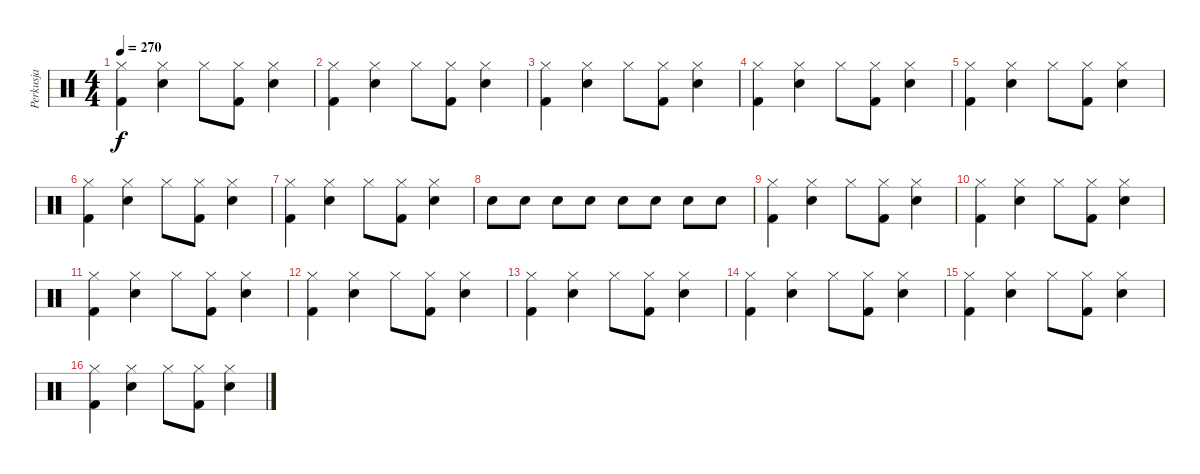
\track ("Perkusja" "Perkusja") {instrument percussion}
\staff {score}
\articulation defaults
\ts (4 4)
\tempo 270
\clef neutral
\ks c
("Hi-Hat (closed)" "Kick (hit) 2").4{dy f} ("Hi-Hat (closed)" "Electric Snare (hit)").4 "Hi-Hat (closed)".8 ("Hi-Hat (closed)" "Kick (hit) 2").8 ("Hi-Hat (closed)" "Electric Snare (hit)").4 |
("Hi-Hat (closed)" "Kick (hit) 2").4 ("Hi-Hat (closed)" "Electric Snare (hit)").4 "Hi-Hat (closed)".8 ("Hi-Hat (closed)" "Kick (hit) 2").8 ("Hi-Hat (closed)" "Electric Snare (hit)").4 |
("Hi-Hat (closed)" "Kick (hit) 2").4 ("Hi-Hat (closed)" "Electric Snare (hit)").4 "Hi-Hat (closed)".8 ("Hi-Hat (closed)" "Kick (hit) 2").8 ("Hi-Hat (closed)" "Electric Snare (hit)").4 |
("Hi-Hat (closed)" "Kick (hit) 2").4 ("Hi-Hat (closed)" "Electric Snare (hit)").4 "Hi-Hat (closed)".8 ("Hi-Hat (closed)" "Kick (hit) 2").8 ("Hi-Hat (closed)" "Electric Snare (hit)").4 |
("Hi-Hat (closed)" "Kick (hit) 2").4 ("Hi-Hat (closed)" "Electric Snare (hit)").4 "Hi-Hat (closed)".8 ("Hi-Hat (closed)" "Kick (hit) 2").8 ("Hi-Hat (closed)" "Electric Snare (hit)").4 |
("Hi-Hat (closed)" "Kick (hit) 2").4 ("Hi-Hat (closed)" "Electric Snare (hit)").4 "Hi-Hat (closed)".8 ("Hi-Hat (closed)" "Kick (hit) 2").8 ("Hi-Hat (closed)" "Electric Snare (hit)").4 |
("Hi-Hat (closed)" "Kick (hit) 2").4 ("Hi-Hat (closed)" "Electric Snare (hit)").4 "Hi-Hat (closed)".8 ("Hi-Hat (closed)" "Kick (hit) 2").8 ("Hi-Hat (closed)" "Electric Snare (hit)").4 |
"Electric Snare (hit)".8 "Electric Snare (hit)".8 "Electric Snare (hit)".8 "Electric Snare (hit)".8 "Electric Snare (hit)".8 "Electric Snare (hit)".8 "Electric Snare (hit)".8 "Electric Snare (hit)".8 |
("Hi-Hat (closed)" "Kick (hit) 2").4 ("Hi-Hat (closed)" "Electric Snare (hit)").4 "Hi-Hat (closed)".8 ("Hi-Hat (closed)" "Kick (hit) 2").8 ("Hi-Hat (closed)" "Electric Snare (hit)").4 |
("Hi-Hat (closed)" "Kick (hit) 2").4 ("Hi-Hat (closed)" "Electric Snare (hit)").4 "Hi-Hat (closed)".8 ("Hi-Hat (closed)" "Kick (hit) 2").8 ("Hi-Hat (closed)" "Electric Snare (hit)").4 |
("Hi-Hat (closed)" "Kick (hit) 2").4 ("Hi-Hat (closed)" "Electric Snare (hit)").4 "Hi-Hat (closed)".8 ("Hi-Hat (closed)" "Kick (hit) 2").8 ("Hi-Hat (closed)" "Electric Snare (hit)").4 |
("Hi-Hat (closed)" "Kick (hit) 2").4 ("Hi-Hat (closed)" "Electric Snare (hit)").4 "Hi-Hat (closed)".8 ("Hi-Hat (closed)" "Kick (hit) 2").8 ("Hi-Hat (closed)" "Electric Snare (hit)").4 |
("Hi-Hat (closed)" "Kick (hit) 2").4 ("Hi-Hat (closed)" "Electric Snare (hit)").4 "Hi-Hat (closed)".8 ("Hi-Hat (closed)" "Kick (hit) 2").8 ("Hi-Hat (closed)" "Electric Snare (hit)").4 |
("Hi-Hat (closed)" "Kick (hit) 2").4 ("Hi-Hat (closed)" "Electric Snare (hit)").4 "Hi-Hat (closed)".8 ("Hi-Hat (closed)" "Kick (hit) 2").8 ("Hi-Hat (closed)" "Electric Snare (hit)").4 |
("Hi-Hat (closed)" "Kick (hit) 2").4 ("Hi-Hat (closed)" "Electric Snare (hit)").4 "Hi-Hat (closed)".8 ("Hi-Hat (closed)" "Kick (hit) 2").8 ("Hi-Hat (closed)" "Electric Snare (hit)").4 |
("Hi-Hat (closed)" "Kick (hit) 2").4 ("Hi-Hat (closed)" "Electric Snare (hit)").4 "Hi-Hat (closed)".8 ("Hi-Hat (closed)" "Kick (hit) 2").8 ("Hi-Hat (closed)" "Electric Snare (hit)").4
